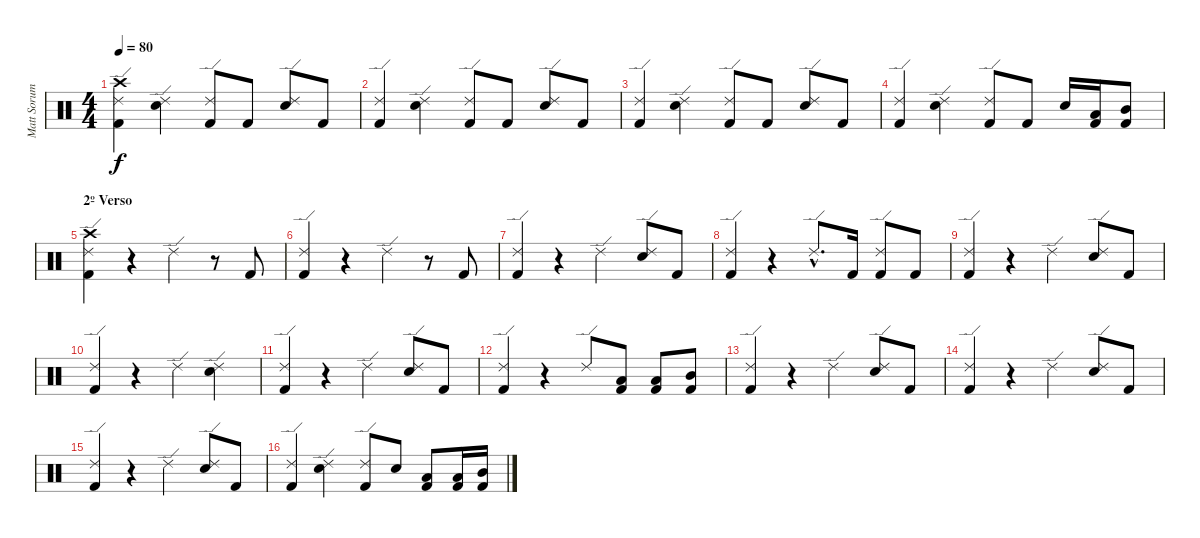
\track ("Matt Sorum" "Matt Sorum") {instrument percussion}
\staff {score}
\articulation defaults
\ts (4 4)
\tempo 80
\clef neutral
\ks c
("Ride (edge) 2" "Kick (hit) 2" "Crash high (hit)").4{dy f} ("Electric Snare (hit)" "Ride (edge) 2").4 ("Ride (edge) 2" "Kick (hit) 2").8 "Kick (hit) 2".8 ("Electric Snare (hit)" "Ride (edge) 2").8 "Kick (hit) 2".8 |
("Ride (edge) 2" "Kick (hit) 2").4 ("Electric Snare (hit)" "Ride (edge) 2").4 ("Ride (edge) 2" "Kick (hit) 2").8 "Kick (hit) 2".8 ("Electric Snare (hit)" "Ride (edge) 2").8 "Kick (hit) 2".8 |
("Ride (edge) 2" "Kick (hit) 2").4 ("Electric Snare (hit)" "Ride (edge) 2").4 ("Ride (edge) 2" "Kick (hit) 2").8 "Kick (hit) 2".8 ("Electric Snare (hit)" "Ride (edge) 2").8 "Kick (hit) 2".8 |
("Ride (edge) 2" "Kick (hit) 2").4 ("Electric Snare (hit)" "Ride (edge) 2").4 ("Ride (edge) 2" "Kick (hit) 2").8 "Kick (hit) 2".8 "Electric Snare (hit)".16 ("Low Tom (hit)" "Kick (hit) 2").16 ("Mid Tom (hit)" "Kick (hit) 2").8 |
\section ("" "2º Verso")
("Ride (edge) 2" "Kick (hit) 2" "Crash high (hit)").4 r.4 "Ride (edge) 2".4 r.8 "Kick (hit) 2".8 |
("Ride (edge) 2" "Kick (hit) 2").4 r.4 "Ride (edge) 2".4 r.8 "Kick (hit) 2".8 |
("Ride (edge) 2" "Kick (hit) 2").4 r.4 "Ride (edge) 2".4 ("Electric Snare (hit)" "Ride (edge) 2").8 "Kick (hit) 2".8 |
("Ride (edge) 2" "Kick (hit) 2").4 r.4 "Ride (edge) 2"{hac}.8{d} "Kick (hit) 2".16 ("Ride (edge) 2" "Kick (hit) 2").8 "Kick (hit) 2".8 |
("Ride (edge) 2" "Kick (hit) 2").4 r.4 "Ride (edge) 2".4 ("Electric Snare (hit)" "Ride (edge) 2").8 "Kick (hit) 2".8 |
("Ride (edge) 2" "Kick (hit) 2").4 r.4 "Ride (edge) 2".4 ("Electric Snare (hit)" "Ride (edge) 2").4 |
("Ride (edge) 2" "Kick (hit) 2").4 r.4 "Ride (edge) 2".4 ("Electric Snare (hit)" "Ride (edge) 2").8 "Kick (hit) 2".8 |
("Kick (hit) 2" "Ride (edge) 2").4 r.4 "Ride (edge) 2".8 ("Low Tom (hit)" "Kick (hit) 2").8 ("Low Tom (hit)" "Kick (hit) 2").8 ("Mid Tom (hit)" "Kick (hit) 2").8 |
("Ride (edge) 2" "Kick (hit) 2").4 r.4 "Ride (edge) 2".4 ("Snare (hit) 2" "Ride (edge) 2").8 "Kick (hit) 2".8 |
("Ride (edge) 2" "Kick (hit) 2").4 r.4 "Ride (edge) 2".4 ("Electric Snare (hit)" "Ride (edge) 2").8 "Kick (hit) 2".8 |
("Ride (edge) 2" "Kick (hit) 2").4 r.4 "Ride (edge) 2".4 ("Electric Snare (hit)" "Ride (edge) 2").8 "Kick (hit) 2".8 |
("Ride (edge) 2" "Kick (hit) 2").4 ("Electric Snare (hit)" "Ride (edge) 2").4 ("Ride (edge) 2" "Kick (hit) 2").8 "Electric Snare (hit)".8 ("Low Tom (hit)" "Kick (hit) 2").8 ("Low Tom (hit)" "Kick (hit) 2").16 ("Mid Tom (hit)" "Kick (hit) 2").16
